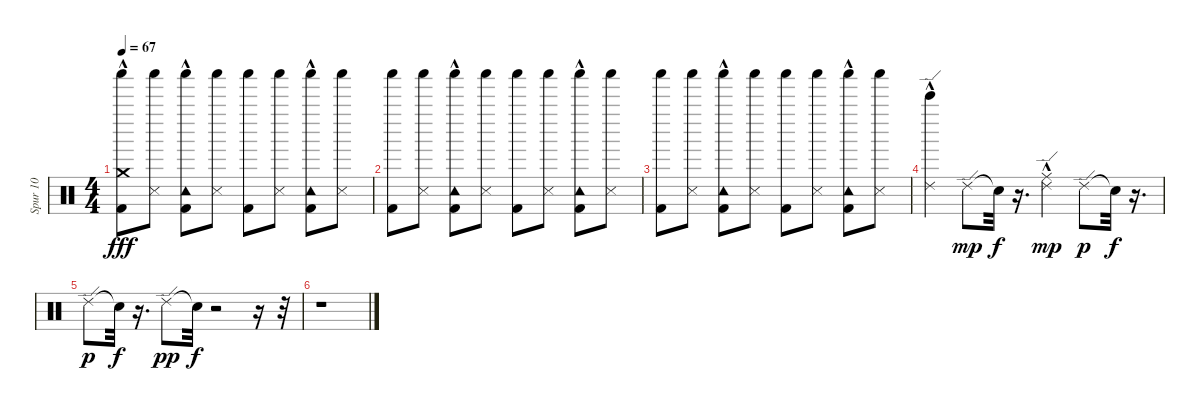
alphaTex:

\track ("Spur 10" "Spur 10") {instrument percussion}
\staff {score}
\articulation defaults
\ts (4 4)
\tempo 67
\clef neutral
\ks c
("Kick (hit) 2" "Crash medium (hit)"{hac} "Shaker (hit)").8{dy fff} ("Snare (side stick) 3" "Shaker (hit)").8 ("Kick (hit) 2" "Tambourine (hit)"{hac} "Shaker (hit)").8 ("Snare (side stick) 3" "Shaker (hit)").8 ("Kick (hit) 2" "Shaker (hit)").8 ("Snare (side stick) 3" "Shaker (hit)").8 ("Kick (hit) 2" "Tambourine (hit)"{hac} "Shaker (hit)").8 ("Snare (side stick) 3" "Shaker (hit)").8 |
("Kick (hit) 2" "Shaker (hit)").8 ("Snare (side stick) 3" "Shaker (hit)").8 ("Kick (hit) 2" "Tambourine (hit)"{hac} "Shaker (hit)").8 ("Snare (side stick) 3" "Shaker (hit)").8 ("Kick (hit) 2" "Shaker (hit)").8 ("Snare (side stick) 3" "Shaker (hit)").8 ("Kick (hit) 2" "Tambourine (hit)"{hac} "Shaker (hit)").8 ("Snare (side stick) 3" "Shaker (hit)").8 |
("Kick (hit) 2" "Shaker (hit)").8 ("Snare (side stick) 3" "Shaker (hit)").8 ("Kick (hit) 2" "Tambourine (hit)"{hac} "Shaker (hit)").8 ("Snare (side stick) 3" "Shaker (hit)").8 ("Kick (hit) 2" "Shaker (hit)").8 ("Snare (side stick) 3" "Shaker (hit)").8 ("Kick (hit) 2" "Tambourine (hit)"{hac} "Shaker (hit)").8 ("Snare (side stick) 3" "Shaker (hit)").8 |
("Ride (edge) 2"{hac} "Bell Tree (hit)").4 "Ride (edge) 2".8{dy mp} "Snare (hit)"{t}.32{dy f} r.16{d} ("Ride (middle)" "Ride (edge) 2"{hac}).4{dy mp} "Ride (edge) 2".8{dy p} "Snare (hit)"{t}.32{dy f} r.16{d} |
"Ride (edge) 2".8{dy p} "Snare (hit)"{t}.32{dy f} r.16{d} "Ride (edge) 2".8{dy pp} "Snare (hit)"{t}.32{dy f} r.2 r.16 r.32 |
r.1
